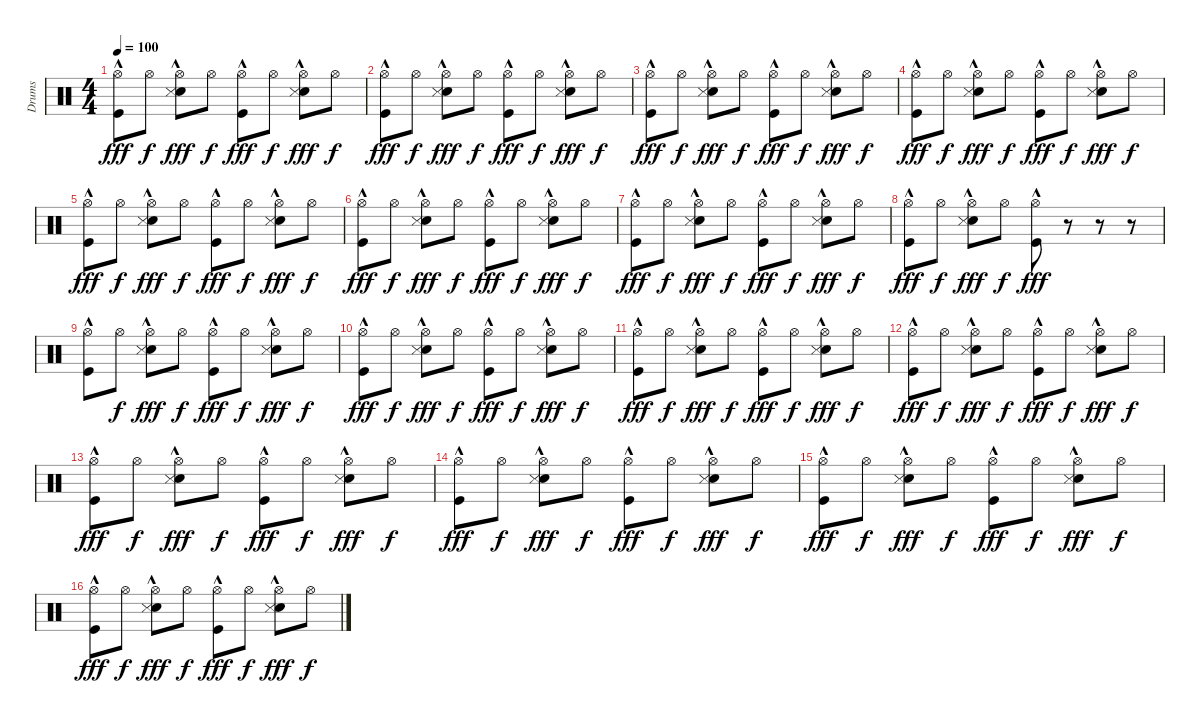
\track ("Drums" "Drums") {instrument percussion}
\staff {score}
\articulation defaults
\ts (4 4)
\tempo 100
\clef neutral
\ks c
("Hi-Hat (open)" "Kick (hit)"{hac}).8{dy fff} "Hi-Hat (open)".8{dy f} ("Hi-Hat (open)" "Snare (hit) 2"{hac} "Metronome (hit)").8{dy fff} "Hi-Hat (open)".8{dy f} ("Hi-Hat (open)" "Kick (hit)"{hac}).8{dy fff} "Hi-Hat (open)".8{dy f} ("Hi-Hat (open)" "Snare (hit) 2"{hac} "Metronome (hit)").8{dy fff} "Hi-Hat (open)".8{dy f} |
("Hi-Hat (open)" "Kick (hit)"{hac}).8{dy fff} "Hi-Hat (open)".8{dy f} ("Hi-Hat (open)" "Snare (hit) 2"{hac} "Metronome (hit)").8{dy fff} "Hi-Hat (open)".8{dy f} ("Hi-Hat (open)" "Kick (hit)"{hac}).8{dy fff} "Hi-Hat (open)".8{dy f} ("Hi-Hat (open)" "Snare (hit) 2"{hac} "Metronome (hit)").8{dy fff} "Hi-Hat (open)".8{dy f} |
("Hi-Hat (open)" "Kick (hit)"{hac}).8{dy fff} "Hi-Hat (open)".8{dy f} ("Hi-Hat (open)" "Snare (hit) 2"{hac} "Metronome (hit)").8{dy fff} "Hi-Hat (open)".8{dy f} ("Hi-Hat (open)" "Kick (hit)"{hac}).8{dy fff} "Hi-Hat (open)".8{dy f} ("Hi-Hat (open)" "Snare (hit) 2"{hac} "Metronome (hit)").8{dy fff} "Hi-Hat (open)".8{dy f} |
("Hi-Hat (open)" "Kick (hit)"{hac}).8{dy fff} "Hi-Hat (open)".8{dy f} ("Hi-Hat (open)" "Snare (hit) 2"{hac} "Metronome (hit)").8{dy fff} "Hi-Hat (open)".8{dy f} ("Hi-Hat (open)" "Kick (hit)"{hac}).8{dy fff} "Hi-Hat (open)".8{dy f} ("Hi-Hat (open)" "Snare (hit) 2"{hac} "Metronome (hit)").8{dy fff} "Hi-Hat (open)".8{dy f} |
("Hi-Hat (open)" "Kick (hit)"{hac}).8{dy fff} "Hi-Hat (open)".8{dy f} ("Hi-Hat (open)" "Snare (hit) 2"{hac} "Metronome (hit)").8{dy fff} "Hi-Hat (open)".8{dy f} ("Hi-Hat (open)" "Kick (hit)"{hac}).8{dy fff} "Hi-Hat (open)".8{dy f} ("Hi-Hat (open)" "Snare (hit) 2"{hac} "Metronome (hit)").8{dy fff} "Hi-Hat (open)".8{dy f} |
("Hi-Hat (open)" "Kick (hit)"{hac}).8{dy fff} "Hi-Hat (open)".8{dy f} ("Hi-Hat (open)" "Snare (hit) 2"{hac} "Metronome (hit)").8{dy fff} "Hi-Hat (open)".8{dy f} ("Hi-Hat (open)" "Kick (hit)"{hac}).8{dy fff} "Hi-Hat (open)".8{dy f} ("Hi-Hat (open)" "Snare (hit) 2"{hac} "Metronome (hit)").8{dy fff} "Hi-Hat (open)".8{dy f} |
("Hi-Hat (open)" "Kick (hit)"{hac}).8{dy fff} "Hi-Hat (open)".8{dy f} ("Hi-Hat (open)" "Snare (hit) 2"{hac} "Metronome (hit)").8{dy fff} "Hi-Hat (open)".8{dy f} ("Hi-Hat (open)" "Kick (hit)"{hac}).8{dy fff} "Hi-Hat (open)".8{dy f} ("Hi-Hat (open)" "Snare (hit) 2"{hac} "Metronome (hit)").8{dy fff} "Hi-Hat (open)".8{dy f} |
("Hi-Hat (open)" "Kick (hit)"{hac}).8{dy fff} "Hi-Hat (open)".8{dy f} ("Hi-Hat (open)" "Snare (hit) 2"{hac} "Metronome (hit)").8{dy fff} "Hi-Hat (open)".8{dy f} ("Hi-Hat (open)" "Kick (hit)"{hac}).8{dy fff} r.8 r.8 r.8 |
("Hi-Hat (open)" "Kick (hit)"{hac}).8 "Hi-Hat (open)".8{dy f} ("Hi-Hat (open)" "Snare (hit) 2"{hac} "Metronome (hit)").8{dy fff} "Hi-Hat (open)".8{dy f} ("Hi-Hat (open)" "Kick (hit)"{hac}).8{dy fff} "Hi-Hat (open)".8{dy f} ("Hi-Hat (open)" "Snare (hit) 2"{hac} "Metronome (hit)").8{dy fff} "Hi-Hat (open)".8{dy f} |
("Hi-Hat (open)" "Kick (hit)"{hac}).8{dy fff} "Hi-Hat (open)".8{dy f} ("Hi-Hat (open)" "Snare (hit) 2"{hac} "Metronome (hit)").8{dy fff} "Hi-Hat (open)".8{dy f} ("Hi-Hat (open)" "Kick (hit)"{hac}).8{dy fff} "Hi-Hat (open)".8{dy f} ("Hi-Hat (open)" "Snare (hit) 2"{hac} "Metronome (hit)").8{dy fff} "Hi-Hat (open)".8{dy f} |
("Hi-Hat (open)" "Kick (hit)"{hac}).8{dy fff} "Hi-Hat (open)".8{dy f} ("Hi-Hat (open)" "Snare (hit) 2"{hac} "Metronome (hit)").8{dy fff} "Hi-Hat (open)".8{dy f} ("Hi-Hat (open)" "Kick (hit)"{hac}).8{dy fff} "Hi-Hat (open)".8{dy f} ("Hi-Hat (open)" "Snare (hit) 2"{hac} "Metronome (hit)").8{dy fff} "Hi-Hat (open)".8{dy f} |
("Hi-Hat (open)" "Kick (hit)"{hac}).8{dy fff} "Hi-Hat (open)".8{dy f} ("Hi-Hat (open)" "Snare (hit) 2"{hac} "Metronome (hit)").8{dy fff} "Hi-Hat (open)".8{dy f} ("Hi-Hat (open)" "Kick (hit)"{hac}).8{dy fff} "Hi-Hat (open)".8{dy f} ("Hi-Hat (open)" "Snare (hit) 2"{hac} "Metronome (hit)").8{dy fff} "Hi-Hat (open)".8{dy f} |
("Hi-Hat (open)" "Kick (hit)"{hac}).8{dy fff} "Hi-Hat (open)".8{dy f} ("Hi-Hat (open)" "Snare (hit) 2"{hac} "Metronome (hit)").8{dy fff} "Hi-Hat (open)".8{dy f} ("Hi-Hat (open)" "Kick (hit)"{hac}).8{dy fff} "Hi-Hat (open)".8{dy f} ("Hi-Hat (open)" "Snare (hit) 2"{hac} "Metronome (hit)").8{dy fff} "Hi-Hat (open)".8{dy f} |
("Hi-Hat (open)" "Kick (hit)"{hac}).8{dy fff} "Hi-Hat (open)".8{dy f} ("Hi-Hat (open)" "Snare (hit) 2"{hac} "Metronome (hit)").8{dy fff} "Hi-Hat (open)".8{dy f} ("Hi-Hat (open)" "Kick (hit)"{hac}).8{dy fff} "Hi-Hat (open)".8{dy f} ("Hi-Hat (open)" "Snare (hit) 2"{hac} "Metronome (hit)").8{dy fff} "Hi-Hat (open)".8{dy f} |
("Hi-Hat (open)" "Kick (hit)"{hac}).8{dy fff} "Hi-Hat (open)".8{dy f} ("Hi-Hat (open)" "Snare (hit) 2"{hac} "Metronome (hit)").8{dy fff} "Hi-Hat (open)".8{dy f} ("Hi-Hat (open)" "Kick (hit)"{hac}).8{dy fff} "Hi-Hat (open)".8{dy f} ("Hi-Hat (open)" "Snare (hit) 2"{hac} "Metronome (hit)").8{dy fff} "Hi-Hat (open)".8{dy f} |
("Hi-Hat (open)" "Kick (hit)"{hac}).8{dy fff} "Hi-Hat (open)".8{dy f} ("Hi-Hat (open)" "Snare (hit) 2"{hac} "Metronome (hit)").8{dy fff} "Hi-Hat (open)".8{dy f} ("Hi-Hat (open)" "Kick (hit)"{hac}).8{dy fff} "Hi-Hat (open)".8{dy f} ("Hi-Hat (open)" "Snare (hit) 2"{hac} "Metronome (hit)").8{dy fff} "Hi-Hat (open)".8{dy f}
